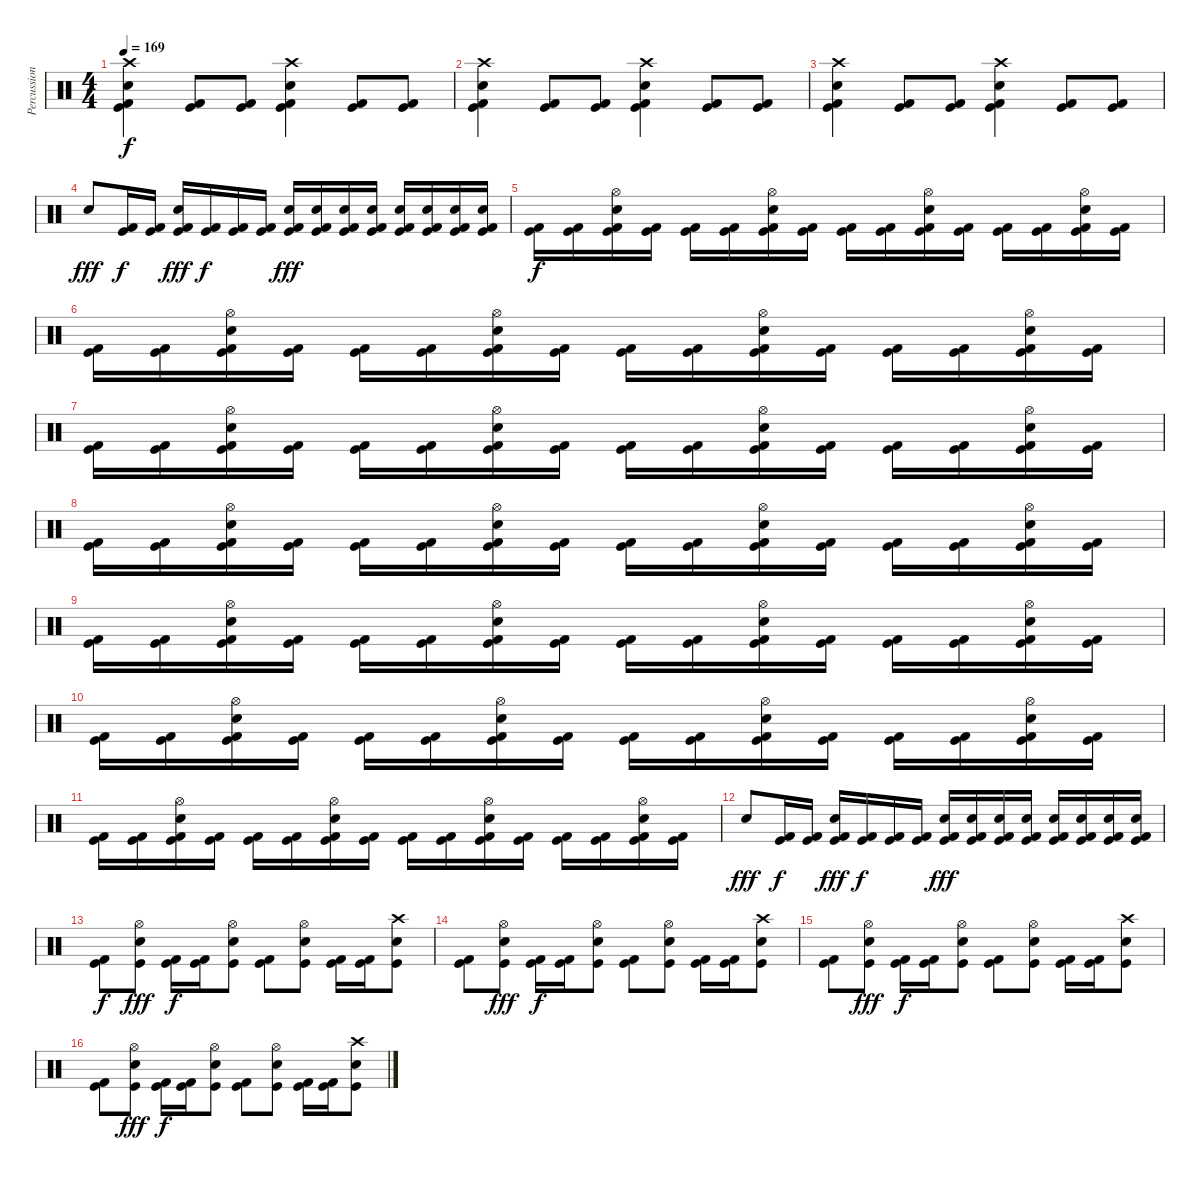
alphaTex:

\track ("Percussion" "Percussion") {instrument percussion}
\staff {score}
\articulation defaults
\ts (4 4)
\tempo 169
\clef neutral
\ks c
("Crash high (hit)" "Electric Snare (hit)" "Kick (hit) 2" "Kick (hit)").4{dy f} ("Kick (hit) 2" "Kick (hit)").8 ("Kick (hit) 2" "Kick (hit)").8 ("Crash high (hit)" "Electric Snare (hit)" "Kick (hit) 2" "Kick (hit)").4 ("Kick (hit) 2" "Kick (hit)").8 ("Kick (hit) 2" "Kick (hit)").8 |
("Crash high (hit)" "Electric Snare (hit)" "Kick (hit) 2" "Kick (hit)").4 ("Kick (hit) 2" "Kick (hit)").8 ("Kick (hit) 2" "Kick (hit)").8 ("Crash high (hit)" "Electric Snare (hit)" "Kick (hit) 2" "Kick (hit)").4 ("Kick (hit) 2" "Kick (hit)").8 ("Kick (hit) 2" "Kick (hit)").8 |
("Crash high (hit)" "Electric Snare (hit)" "Kick (hit) 2" "Kick (hit)").4 ("Kick (hit) 2" "Kick (hit)").8 ("Kick (hit) 2" "Kick (hit)").8 ("Crash high (hit)" "Electric Snare (hit)" "Kick (hit) 2" "Kick (hit)").4 ("Kick (hit) 2" "Kick (hit)").8 ("Kick (hit) 2" "Kick (hit)").8 |
"Electric Snare (hit)".8{dy fff} ("Kick (hit) 2" "Kick (hit)").16{dy f} ("Kick (hit) 2" "Kick (hit)").16 ("Kick (hit) 2" "Electric Snare (hit)" "Kick (hit)").16{dy fff} ("Kick (hit) 2" "Kick (hit)").16{dy f} ("Kick (hit) 2" "Kick (hit)").16 ("Kick (hit) 2" "Kick (hit)").16 ("Kick (hit) 2" "Snare (hit) 2" "Kick (hit)").16{dy fff} ("Kick (hit) 2" "Snare (hit) 2" "Kick (hit)").16 ("Kick (hit) 2" "Snare (hit) 2" "Kick (hit)").16 ("Kick (hit) 2" "Snare (hit) 2" "Kick (hit)").16 ("Kick (hit) 2" "Snare (hit) 2" "Kick (hit)").16 ("Kick (hit) 2" "Snare (hit) 2" "Kick (hit)").16 ("Kick (hit) 2" "Snare (hit) 2" "Kick (hit)").16 ("Kick (hit) 2" "Snare (hit) 2" "Kick (hit)").16 |
("Kick (hit) 2" "Kick (hit)").16{dy f} ("Kick (hit) 2" "Kick (hit)").16 ("Hi-Hat (open)" "Electric Snare (hit)" "Kick (hit) 2" "Kick (hit)").16 ("Kick (hit) 2" "Kick (hit)").16 ("Kick (hit) 2" "Kick (hit)").16 ("Kick (hit) 2" "Kick (hit)").16 ("Hi-Hat (open)" "Electric Snare (hit)" "Kick (hit) 2" "Kick (hit)").16 ("Kick (hit) 2" "Kick (hit)").16 ("Kick (hit) 2" "Kick (hit)").16 ("Kick (hit) 2" "Kick (hit)").16 ("Hi-Hat (open)" "Electric Snare (hit)" "Kick (hit) 2" "Kick (hit)").16 ("Kick (hit) 2" "Kick (hit)").16 ("Kick (hit) 2" "Kick (hit)").16 ("Kick (hit) 2" "Kick (hit)").16 ("Hi-Hat (open)" "Electric Snare (hit)" "Kick (hit) 2" "Kick (hit)").16 ("Kick (hit) 2" "Kick (hit)").16 |
("Kick (hit) 2" "Kick (hit)").16 ("Kick (hit) 2" "Kick (hit)").16 ("Hi-Hat (open)" "Electric Snare (hit)" "Kick (hit) 2" "Kick (hit)").16 ("Kick (hit) 2" "Kick (hit)").16 ("Kick (hit) 2" "Kick (hit)").16 ("Kick (hit) 2" "Kick (hit)").16 ("Hi-Hat (open)" "Electric Snare (hit)" "Kick (hit) 2" "Kick (hit)").16 ("Kick (hit) 2" "Kick (hit)").16 ("Kick (hit) 2" "Kick (hit)").16 ("Kick (hit) 2" "Kick (hit)").16 ("Hi-Hat (open)" "Electric Snare (hit)" "Kick (hit) 2" "Kick (hit)").16 ("Kick (hit) 2" "Kick (hit)").16 ("Kick (hit) 2" "Kick (hit)").16 ("Kick (hit) 2" "Kick (hit)").16 ("Hi-Hat (open)" "Electric Snare (hit)" "Kick (hit) 2" "Kick (hit)").16 ("Kick (hit) 2" "Kick (hit)").16 |
("Kick (hit) 2" "Kick (hit)").16 ("Kick (hit) 2" "Kick (hit)").16 ("Hi-Hat (open)" "Electric Snare (hit)" "Kick (hit) 2" "Kick (hit)").16 ("Kick (hit) 2" "Kick (hit)").16 ("Kick (hit) 2" "Kick (hit)").16 ("Kick (hit) 2" "Kick (hit)").16 ("Hi-Hat (open)" "Electric Snare (hit)" "Kick (hit) 2" "Kick (hit)").16 ("Kick (hit) 2" "Kick (hit)").16 ("Kick (hit) 2" "Kick (hit)").16 ("Kick (hit) 2" "Kick (hit)").16 ("Hi-Hat (open)" "Electric Snare (hit)" "Kick (hit) 2" "Kick (hit)").16 ("Kick (hit) 2" "Kick (hit)").16 ("Kick (hit) 2" "Kick (hit)").16 ("Kick (hit) 2" "Kick (hit)").16 ("Hi-Hat (open)" "Electric Snare (hit)" "Kick (hit) 2" "Kick (hit)").16 ("Kick (hit) 2" "Kick (hit)").16 |
("Kick (hit) 2" "Kick (hit)").16 ("Kick (hit) 2" "Kick (hit)").16 ("Hi-Hat (open)" "Electric Snare (hit)" "Kick (hit) 2" "Kick (hit)").16 ("Kick (hit) 2" "Kick (hit)").16 ("Kick (hit) 2" "Kick (hit)").16 ("Kick (hit) 2" "Kick (hit)").16 ("Hi-Hat (open)" "Electric Snare (hit)" "Kick (hit) 2" "Kick (hit)").16 ("Kick (hit) 2" "Kick (hit)").16 ("Kick (hit) 2" "Kick (hit)").16 ("Kick (hit) 2" "Kick (hit)").16 ("Hi-Hat (open)" "Electric Snare (hit)" "Kick (hit) 2" "Kick (hit)").16 ("Kick (hit) 2" "Kick (hit)").16 ("Kick (hit) 2" "Kick (hit)").16 ("Kick (hit) 2" "Kick (hit)").16 ("Hi-Hat (open)" "Electric Snare (hit)" "Kick (hit) 2" "Kick (hit)").16 ("Kick (hit) 2" "Kick (hit)").16 |
("Kick (hit) 2" "Kick (hit)").16 ("Kick (hit) 2" "Kick (hit)").16 ("Hi-Hat (open)" "Electric Snare (hit)" "Kick (hit) 2" "Kick (hit)").16 ("Kick (hit) 2" "Kick (hit)").16 ("Kick (hit) 2" "Kick (hit)").16 ("Kick (hit) 2" "Kick (hit)").16 ("Hi-Hat (open)" "Electric Snare (hit)" "Kick (hit) 2" "Kick (hit)").16 ("Kick (hit) 2" "Kick (hit)").16 ("Kick (hit) 2" "Kick (hit)").16 ("Kick (hit) 2" "Kick (hit)").16 ("Hi-Hat (open)" "Electric Snare (hit)" "Kick (hit) 2" "Kick (hit)").16 ("Kick (hit) 2" "Kick (hit)").16 ("Kick (hit) 2" "Kick (hit)").16 ("Kick (hit) 2" "Kick (hit)").16 ("Hi-Hat (open)" "Electric Snare (hit)" "Kick (hit) 2" "Kick (hit)").16 ("Kick (hit) 2" "Kick (hit)").16 |
("Kick (hit) 2" "Kick (hit)").16 ("Kick (hit) 2" "Kick (hit)").16 ("Hi-Hat (open)" "Electric Snare (hit)" "Kick (hit) 2" "Kick (hit)").16 ("Kick (hit) 2" "Kick (hit)").16 ("Kick (hit) 2" "Kick (hit)").16 ("Kick (hit) 2" "Kick (hit)").16 ("Hi-Hat (open)" "Electric Snare (hit)" "Kick (hit) 2" "Kick (hit)").16 ("Kick (hit) 2" "Kick (hit)").16 ("Kick (hit) 2" "Kick (hit)").16 ("Kick (hit) 2" "Kick (hit)").16 ("Hi-Hat (open)" "Electric Snare (hit)" "Kick (hit) 2" "Kick (hit)").16 ("Kick (hit) 2" "Kick (hit)").16 ("Kick (hit) 2" "Kick (hit)").16 ("Kick (hit) 2" "Kick (hit)").16 ("Hi-Hat (open)" "Electric Snare (hit)" "Kick (hit) 2" "Kick (hit)").16 ("Kick (hit) 2" "Kick (hit)").16 |
("Kick (hit) 2" "Kick (hit)").16 ("Kick (hit) 2" "Kick (hit)").16 ("Hi-Hat (open)" "Electric Snare (hit)" "Kick (hit) 2" "Kick (hit)").16 ("Kick (hit) 2" "Kick (hit)").16 ("Kick (hit) 2" "Kick (hit)").16 ("Kick (hit) 2" "Kick (hit)").16 ("Hi-Hat (open)" "Electric Snare (hit)" "Kick (hit) 2" "Kick (hit)").16 ("Kick (hit) 2" "Kick (hit)").16 ("Kick (hit) 2" "Kick (hit)").16 ("Kick (hit) 2" "Kick (hit)").16 ("Hi-Hat (open)" "Electric Snare (hit)" "Kick (hit) 2" "Kick (hit)").16 ("Kick (hit) 2" "Kick (hit)").16 ("Kick (hit) 2" "Kick (hit)").16 ("Kick (hit) 2" "Kick (hit)").16 ("Hi-Hat (open)" "Electric Snare (hit)" "Kick (hit) 2" "Kick (hit)").16 ("Kick (hit) 2" "Kick (hit)").16 |
"Electric Snare (hit)".8{dy fff} ("Kick (hit) 2" "Kick (hit)").16{dy f} ("Kick (hit) 2" "Kick (hit)").16 ("Kick (hit) 2" "Electric Snare (hit)" "Kick (hit)").16{dy fff} ("Kick (hit) 2" "Kick (hit)").16{dy f} ("Kick (hit) 2" "Kick (hit)").16 ("Kick (hit) 2" "Kick (hit)").16 ("Kick (hit) 2" "Snare (hit) 2" "Kick (hit)").16{dy fff} ("Kick (hit) 2" "Snare (hit) 2" "Kick (hit)").16 ("Kick (hit) 2" "Snare (hit) 2" "Kick (hit)").16 ("Kick (hit) 2" "Snare (hit) 2" "Kick (hit)").16 ("Kick (hit) 2" "Snare (hit) 2" "Kick (hit)").16 ("Kick (hit) 2" "Snare (hit) 2" "Kick (hit)").16 ("Kick (hit) 2" "Snare (hit) 2" "Kick (hit)").16 ("Kick (hit) 2" "Snare (hit) 2" "Kick (hit)").16 |
("Kick (hit) 2" "Kick (hit)").8{dy f} ("Hi-Hat (open)" "Electric Snare (hit)" "Kick (hit)").8{dy fff} ("Kick (hit) 2" "Kick (hit)").16{dy f} ("Kick (hit) 2" "Kick (hit)").16 ("Hi-Hat (open)" "Electric Snare (hit)" "Kick (hit)").8 ("Kick (hit) 2" "Kick (hit)").8 ("Hi-Hat (open)" "Electric Snare (hit)" "Kick (hit)").8 ("Kick (hit) 2" "Kick (hit)").16 ("Kick (hit) 2" "Kick (hit)").16 ("Crash high (hit)" "Electric Snare (hit)" "Kick (hit)").8 |
("Kick (hit) 2" "Kick (hit)").8 ("Hi-Hat (open)" "Electric Snare (hit)" "Kick (hit)").8{dy fff} ("Kick (hit) 2" "Kick (hit)").16{dy f} ("Kick (hit) 2" "Kick (hit)").16 ("Hi-Hat (open)" "Electric Snare (hit)" "Kick (hit)").8 ("Kick (hit) 2" "Kick (hit)").8 ("Hi-Hat (open)" "Electric Snare (hit)" "Kick (hit)").8 ("Kick (hit) 2" "Kick (hit)").16 ("Kick (hit) 2" "Kick (hit)").16 ("Crash high (hit)" "Electric Snare (hit)" "Kick (hit)").8 |
("Kick (hit) 2" "Kick (hit)").8 ("Hi-Hat (open)" "Electric Snare (hit)" "Kick (hit)").8{dy fff} ("Kick (hit) 2" "Kick (hit)").16{dy f} ("Kick (hit) 2" "Kick (hit)").16 ("Hi-Hat (open)" "Electric Snare (hit)" "Kick (hit)").8 ("Kick (hit) 2" "Kick (hit)").8 ("Hi-Hat (open)" "Electric Snare (hit)" "Kick (hit)").8 ("Kick (hit) 2" "Kick (hit)").16 ("Kick (hit) 2" "Kick (hit)").16 ("Crash high (hit)" "Electric Snare (hit)" "Kick (hit)").8 |
("Kick (hit) 2" "Kick (hit)").8 ("Hi-Hat (open)" "Electric Snare (hit)" "Kick (hit)").8{dy fff} ("Kick (hit) 2" "Kick (hit)").16{dy f} ("Kick (hit) 2" "Kick (hit)").16 ("Hi-Hat (open)" "Electric Snare (hit)" "Kick (hit)").8 ("Kick (hit) 2" "Kick (hit)").8 ("Hi-Hat (open)" "Electric Snare (hit)" "Kick (hit)").8 ("Kick (hit) 2" "Kick (hit)").16 ("Kick (hit) 2" "Kick (hit)").16 ("Crash high (hit)" "Electric Snare (hit)" "Kick (hit)").8
